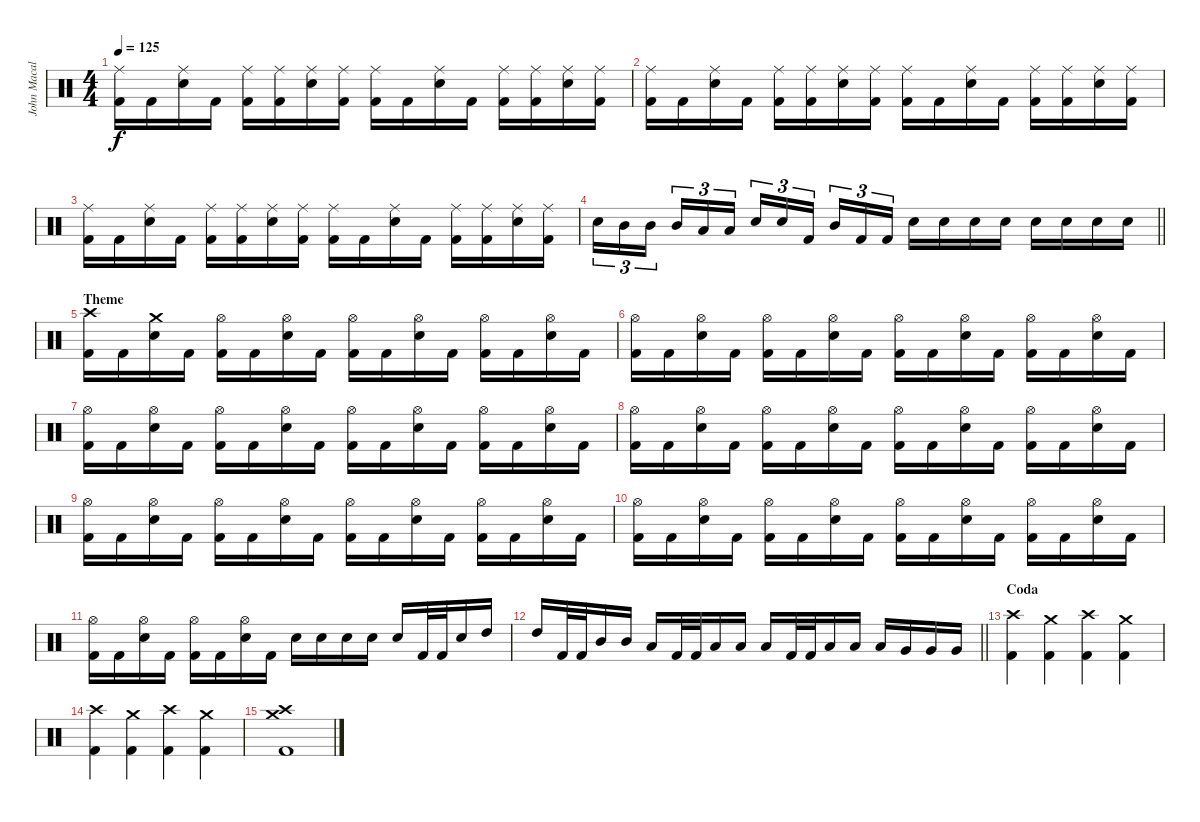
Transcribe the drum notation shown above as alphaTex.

\track ("John Macaluso " "John Macal") {instrument percussion}
\staff {score}
\articulation defaults
\ts (4 4)
\tempo 125
\clef neutral
\ks c
("Ride (middle)" "Kick (hit) 2").16{dy f} "Kick (hit) 2".16 ("Ride (middle)" "Snare (hit) 2").16 "Kick (hit) 2".16 ("Ride (middle)" "Kick (hit) 2").16 ("Ride (middle)" "Kick (hit) 2").16 ("Ride (middle)" "Snare (hit) 2").16 ("Ride (middle)" "Kick (hit) 2").16 ("Ride (middle)" "Kick (hit) 2").16 "Kick (hit) 2".16 ("Ride (middle)" "Snare (hit) 2").16 "Kick (hit) 2".16 ("Ride (middle)" "Kick (hit) 2").16 ("Ride (middle)" "Kick (hit) 2").16 ("Ride (middle)" "Snare (hit) 2").16 ("Ride (middle)" "Kick (hit) 2").16 |
("Ride (middle)" "Kick (hit) 2").16 "Kick (hit) 2".16 ("Ride (middle)" "Snare (hit) 2").16 "Kick (hit) 2".16 ("Ride (middle)" "Kick (hit) 2").16 ("Ride (middle)" "Kick (hit) 2").16 ("Ride (middle)" "Snare (hit) 2").16 ("Ride (middle)" "Kick (hit) 2").16 ("Ride (middle)" "Kick (hit) 2").16 "Kick (hit) 2".16 ("Ride (middle)" "Snare (hit) 2").16 "Kick (hit) 2".16 ("Ride (middle)" "Kick (hit) 2").16 ("Ride (middle)" "Kick (hit) 2").16 ("Ride (middle)" "Snare (hit) 2").16 ("Ride (middle)" "Kick (hit) 2").16 |
("Ride (middle)" "Kick (hit) 2").16 "Kick (hit) 2".16 ("Ride (middle)" "Snare (hit) 2").16 "Kick (hit) 2".16 ("Ride (middle)" "Kick (hit) 2").16 ("Ride (middle)" "Kick (hit) 2").16 ("Ride (middle)" "Snare (hit) 2").16 ("Ride (middle)" "Kick (hit) 2").16 ("Ride (middle)" "Kick (hit) 2").16 "Kick (hit) 2".16 ("Ride (middle)" "Snare (hit) 2").16 "Kick (hit) 2".16 ("Ride (middle)" "Kick (hit) 2").16 ("Ride (middle)" "Kick (hit) 2").16 ("Ride (middle)" "Snare (hit) 2").16 ("Ride (middle)" "Kick (hit) 2").16 |
\barLineRight lightlight "Snare (hit) 2".16{tu (3 2)} "Mid Tom (hit)".16{tu (3 2)} "Mid Tom (hit)".16{tu (3 2) beam splitsecondary} "Mid Tom (hit)".16{tu (3 2)} "Low Tom (hit)".16{tu (3 2)} "Low Tom (hit)".16{tu (3 2)} "Snare (hit) 2".16{tu (3 2)} "Snare (hit) 2".16{tu (3 2)} "Kick (hit) 2".16{tu (3 2) beam splitsecondary} "Mid Tom (hit)".16{tu (3 2)} "Kick (hit) 2".16{tu (3 2)} "Kick (hit) 2".16{tu (3 2)} "Snare (hit) 2".16 "Snare (hit) 2".16 "Snare (hit) 2".16 "Snare (hit) 2".16 "Snare (hit) 2".16 "Snare (hit) 2".16 "Snare (hit) 2".16 "Snare (hit) 2".16
|
\section ("" "Theme")
("Crash high (hit)" "Kick (hit) 2").16 "Kick (hit) 2".16 ("Crash medium (hit)" "Snare (hit) 2").16 "Kick (hit) 2".16 ("Hi-Hat (open)" "Kick (hit) 2").16 "Kick (hit) 2".16 ("Hi-Hat (open)" "Snare (hit) 2").16 "Kick (hit) 2".16 ("Hi-Hat (open)" "Kick (hit) 2").16 "Kick (hit) 2".16 ("Hi-Hat (open)" "Snare (hit) 2").16 "Kick (hit) 2".16 ("Hi-Hat (open)" "Kick (hit) 2").16 "Kick (hit) 2".16 ("Hi-Hat (open)" "Snare (hit) 2").16 "Kick (hit) 2".16 |
("Hi-Hat (open)" "Kick (hit) 2").16 "Kick (hit) 2".16 ("Hi-Hat (open)" "Snare (hit) 2").16 "Kick (hit) 2".16 ("Hi-Hat (open)" "Kick (hit) 2").16 "Kick (hit) 2".16 ("Hi-Hat (open)" "Snare (hit) 2").16 "Kick (hit) 2".16 ("Hi-Hat (open)" "Kick (hit) 2").16 "Kick (hit) 2".16 ("Hi-Hat (open)" "Snare (hit) 2").16 "Kick (hit) 2".16 ("Hi-Hat (open)" "Kick (hit) 2").16 "Kick (hit) 2".16 ("Hi-Hat (open)" "Snare (hit) 2").16 "Kick (hit) 2".16 |
("Hi-Hat (open)" "Kick (hit) 2").16 "Kick (hit) 2".16 ("Hi-Hat (open)" "Snare (hit) 2").16 "Kick (hit) 2".16 ("Hi-Hat (open)" "Kick (hit) 2").16 "Kick (hit) 2".16 ("Hi-Hat (open)" "Snare (hit) 2").16 "Kick (hit) 2".16 ("Hi-Hat (open)" "Kick (hit) 2").16 "Kick (hit) 2".16 ("Hi-Hat (open)" "Snare (hit) 2").16 "Kick (hit) 2".16 ("Hi-Hat (open)" "Kick (hit) 2").16 "Kick (hit) 2".16 ("Hi-Hat (open)" "Snare (hit) 2").16 "Kick (hit) 2".16 |
("Hi-Hat (open)" "Kick (hit) 2").16 "Kick (hit) 2".16 ("Hi-Hat (open)" "Snare (hit) 2").16 "Kick (hit) 2".16 ("Hi-Hat (open)" "Kick (hit) 2").16 "Kick (hit) 2".16 ("Hi-Hat (open)" "Snare (hit) 2").16 "Kick (hit) 2".16 ("Hi-Hat (open)" "Kick (hit) 2").16 "Kick (hit) 2".16 ("Hi-Hat (open)" "Snare (hit) 2").16 "Kick (hit) 2".16 ("Hi-Hat (open)" "Kick (hit) 2").16 "Kick (hit) 2".16 ("Hi-Hat (open)" "Snare (hit) 2").16 "Kick (hit) 2".16 |
("Hi-Hat (open)" "Kick (hit) 2").16 "Kick (hit) 2".16 ("Hi-Hat (open)" "Snare (hit) 2").16 "Kick (hit) 2".16 ("Hi-Hat (open)" "Kick (hit) 2").16 "Kick (hit) 2".16 ("Hi-Hat (open)" "Snare (hit) 2").16 "Kick (hit) 2".16 ("Hi-Hat (open)" "Kick (hit) 2").16 "Kick (hit) 2".16 ("Hi-Hat (open)" "Snare (hit) 2").16 "Kick (hit) 2".16 ("Hi-Hat (open)" "Kick (hit) 2").16 "Kick (hit) 2".16 ("Hi-Hat (open)" "Snare (hit) 2").16 "Kick (hit) 2".16 |
("Hi-Hat (open)" "Kick (hit) 2").16 "Kick (hit) 2".16 ("Hi-Hat (open)" "Snare (hit) 2").16 "Kick (hit) 2".16 ("Hi-Hat (open)" "Kick (hit) 2").16 "Kick (hit) 2".16 ("Hi-Hat (open)" "Snare (hit) 2").16 "Kick (hit) 2".16 ("Hi-Hat (open)" "Kick (hit) 2").16 "Kick (hit) 2".16 ("Hi-Hat (open)" "Snare (hit) 2").16 "Kick (hit) 2".16 ("Hi-Hat (open)" "Kick (hit) 2").16 "Kick (hit) 2".16 ("Hi-Hat (open)" "Snare (hit) 2").16 "Kick (hit) 2".16 |
("Hi-Hat (open)" "Kick (hit) 2").16 "Kick (hit) 2".16 ("Hi-Hat (open)" "Snare (hit) 2").16 "Kick (hit) 2".16 ("Hi-Hat (open)" "Kick (hit) 2").16 "Kick (hit) 2".16 ("Hi-Hat (open)" "Snare (hit) 2").16 "Kick (hit) 2".16 "Snare (hit) 2".16 "Snare (hit) 2".16 "Snare (hit) 2".16 "Snare (hit) 2".16 "Snare (hit) 2".16 "Kick (hit) 2".32 "Kick (hit) 2".32 "Snare (hit) 2".16 "High Tom (hit)".16 |
\barLineRight lightlight "High Tom (hit)".16 "Kick (hit) 2".32 "Kick (hit) 2".32 "Mid Tom (hit)".16 "Mid Tom (hit)".16 "Low Tom (hit)".16 "Kick (hit) 2".32 "Kick (hit) 2".32 "Low Tom (hit)".16 "Low Tom (hit)".16 "Low Tom (hit)".16 "Kick (hit) 2".32 "Kick (hit) 2".32 "Low Tom (hit)".16 "Low Tom (hit)".16 "Low Tom (hit)".16 "Very Low Tom (hit)".16 "Very Low Tom (hit)".16 "Very Low Tom (hit)".16
|
\section ("" "Coda")
("Crash high (hit)" "Kick (hit) 2").4 ("Crash medium (hit)" "Kick (hit) 2").4 ("Crash high (hit)" "Kick (hit) 2").4 ("Crash medium (hit)" "Kick (hit) 2").4 |
("Crash high (hit)" "Kick (hit) 2").4 ("Crash medium (hit)" "Kick (hit) 2").4 ("Crash high (hit)" "Kick (hit) 2").4 ("Crash medium (hit)" "Kick (hit) 2").4 |
("Crash medium (hit)" "Crash high (hit)" "Kick (hit) 2").1
